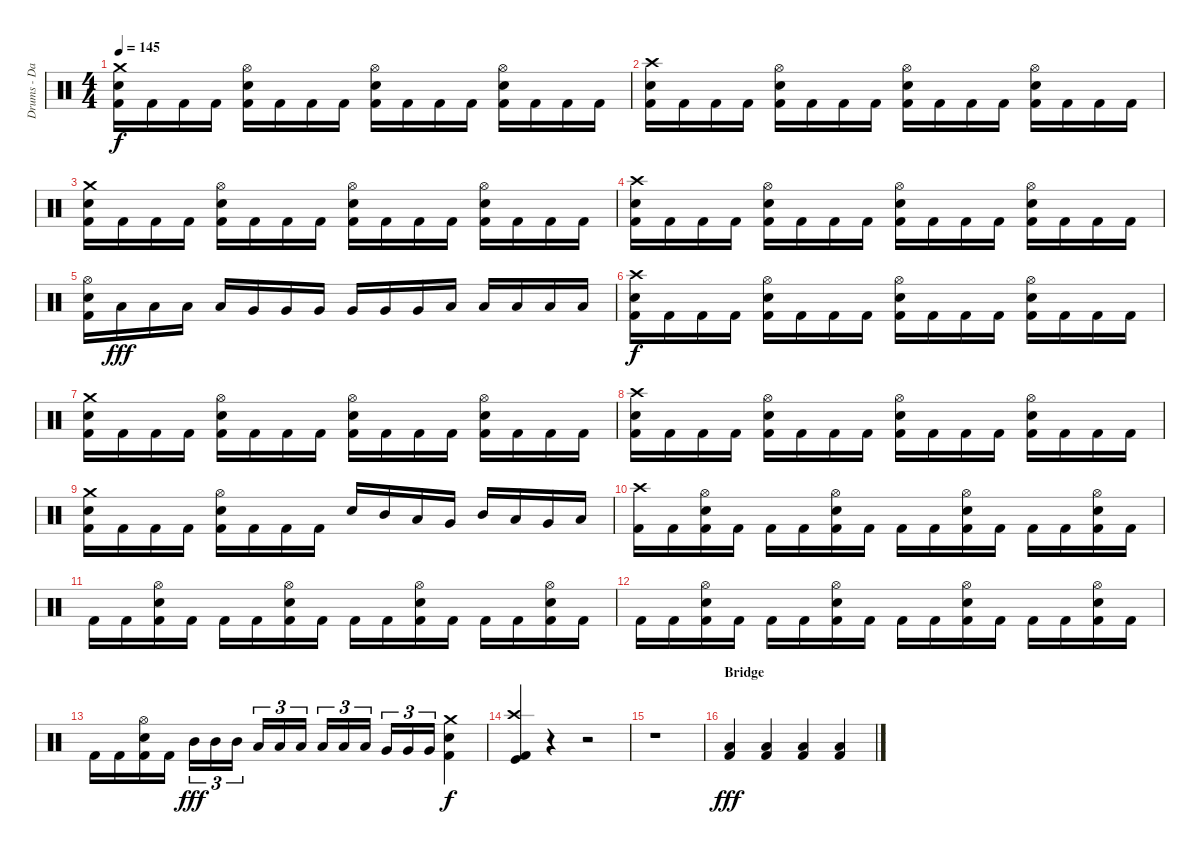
\track ("Drums - Daniel Zimmermann" "Drums - Da") {instrument percussion}
\staff {score}
\articulation defaults
\ts (4 4)
\tempo 145
\clef neutral
\ks c
("Kick (hit) 2" "Electric Snare (hit)" "Crash medium (hit)").16{dy f} "Kick (hit) 2".16 "Kick (hit) 2".16 "Kick (hit) 2".16 ("Kick (hit) 2" "Electric Snare (hit)" "Hi-Hat (open)").16 "Kick (hit) 2".16 "Kick (hit) 2".16 "Kick (hit) 2".16 ("Kick (hit) 2" "Electric Snare (hit)" "Hi-Hat (open)").16 "Kick (hit) 2".16 "Kick (hit) 2".16 "Kick (hit) 2".16 ("Kick (hit) 2" "Electric Snare (hit)" "Hi-Hat (open)").16 "Kick (hit) 2".16 "Kick (hit) 2".16 "Kick (hit) 2".16 |
("Kick (hit) 2" "Electric Snare (hit)" "Crash high (hit)").16 "Kick (hit) 2".16 "Kick (hit) 2".16 "Kick (hit) 2".16 ("Kick (hit) 2" "Electric Snare (hit)" "Hi-Hat (open)").16 "Kick (hit) 2".16 "Kick (hit) 2".16 "Kick (hit) 2".16 ("Kick (hit) 2" "Electric Snare (hit)" "Hi-Hat (open)").16 "Kick (hit) 2".16 "Kick (hit) 2".16 "Kick (hit) 2".16 ("Kick (hit) 2" "Electric Snare (hit)" "Hi-Hat (open)").16 "Kick (hit) 2".16 "Kick (hit) 2".16 "Kick (hit) 2".16 |
("Kick (hit) 2" "Electric Snare (hit)" "Crash medium (hit)").16 "Kick (hit) 2".16 "Kick (hit) 2".16 "Kick (hit) 2".16 ("Kick (hit) 2" "Electric Snare (hit)" "Hi-Hat (open)").16 "Kick (hit) 2".16 "Kick (hit) 2".16 "Kick (hit) 2".16 ("Kick (hit) 2" "Electric Snare (hit)" "Hi-Hat (open)").16 "Kick (hit) 2".16 "Kick (hit) 2".16 "Kick (hit) 2".16 ("Kick (hit) 2" "Electric Snare (hit)" "Hi-Hat (open)").16 "Kick (hit) 2".16 "Kick (hit) 2".16 "Kick (hit) 2".16 |
("Kick (hit) 2" "Electric Snare (hit)" "Crash high (hit)").16 "Kick (hit) 2".16 "Kick (hit) 2".16 "Kick (hit) 2".16 ("Kick (hit) 2" "Electric Snare (hit)" "Hi-Hat (open)").16 "Kick (hit) 2".16 "Kick (hit) 2".16 "Kick (hit) 2".16 ("Kick (hit) 2" "Electric Snare (hit)" "Hi-Hat (open)").16 "Kick (hit) 2".16 "Kick (hit) 2".16 "Kick (hit) 2".16 ("Kick (hit) 2" "Electric Snare (hit)" "Hi-Hat (open)").16 "Kick (hit) 2".16 "Kick (hit) 2".16 "Kick (hit) 2".16 |
("Kick (hit) 2" "Electric Snare (hit)" "Hi-Hat (open)").16 "Low Tom (hit)".16{dy fff} "Low Tom (hit)".16 "Low Tom (hit)".16 "Low Tom (hit)".16 "Very Low Tom (hit)".16 "Very Low Tom (hit)".16 "Very Low Tom (hit)".16 "Very Low Tom (hit)".16 "Very Low Tom (hit)".16 "Very Low Tom (hit)".16 "Low Floor Tom (hit)".16 "Low Floor Tom (hit)".16 "Low Floor Tom (hit)".16 "Low Floor Tom (hit)".16 "Low Floor Tom (hit)".16 |
("Kick (hit) 2" "Electric Snare (hit)" "Crash high (hit)").16{dy f} "Kick (hit) 2".16 "Kick (hit) 2".16 "Kick (hit) 2".16 ("Kick (hit) 2" "Electric Snare (hit)" "Hi-Hat (open)").16 "Kick (hit) 2".16 "Kick (hit) 2".16 "Kick (hit) 2".16 ("Kick (hit) 2" "Electric Snare (hit)" "Hi-Hat (open)").16 "Kick (hit) 2".16 "Kick (hit) 2".16 "Kick (hit) 2".16 ("Kick (hit) 2" "Electric Snare (hit)" "Hi-Hat (open)").16 "Kick (hit) 2".16 "Kick (hit) 2".16 "Kick (hit) 2".16 |
("Kick (hit) 2" "Electric Snare (hit)" "Crash medium (hit)").16 "Kick (hit) 2".16 "Kick (hit) 2".16 "Kick (hit) 2".16 ("Kick (hit) 2" "Electric Snare (hit)" "Hi-Hat (open)").16 "Kick (hit) 2".16 "Kick (hit) 2".16 "Kick (hit) 2".16 ("Kick (hit) 2" "Electric Snare (hit)" "Hi-Hat (open)").16 "Kick (hit) 2".16 "Kick (hit) 2".16 "Kick (hit) 2".16 ("Kick (hit) 2" "Electric Snare (hit)" "Hi-Hat (open)").16 "Kick (hit) 2".16 "Kick (hit) 2".16 "Kick (hit) 2".16 |
("Kick (hit) 2" "Electric Snare (hit)" "Crash high (hit)").16 "Kick (hit) 2".16 "Kick (hit) 2".16 "Kick (hit) 2".16 ("Kick (hit) 2" "Electric Snare (hit)" "Hi-Hat (open)").16 "Kick (hit) 2".16 "Kick (hit) 2".16 "Kick (hit) 2".16 ("Kick (hit) 2" "Electric Snare (hit)" "Hi-Hat (open)").16 "Kick (hit) 2".16 "Kick (hit) 2".16 "Kick (hit) 2".16 ("Kick (hit) 2" "Electric Snare (hit)" "Hi-Hat (open)").16 "Kick (hit) 2".16 "Kick (hit) 2".16 "Kick (hit) 2".16 |
("Kick (hit) 2" "Electric Snare (hit)" "Crash medium (hit)").16 "Kick (hit) 2".16 "Kick (hit) 2".16 "Kick (hit) 2".16 ("Kick (hit) 2" "Electric Snare (hit)" "Hi-Hat (open)").16 "Kick (hit) 2".16 "Kick (hit) 2".16 "Kick (hit) 2".16 "Electric Snare (hit)".16 "Mid Tom (hit)".16 "Low Tom (hit)".16 "Very Low Tom (hit)".16 "Mid Tom (hit)".16 "Low Tom (hit)".16 "Very Low Tom (hit)".16 "Low Floor Tom (hit)".16 |
("Kick (hit) 2" "Crash high (hit)").16 "Kick (hit) 2".16 ("Kick (hit) 2" "Electric Snare (hit)" "Hi-Hat (open)").16 "Kick (hit) 2".16 "Kick (hit) 2".16 "Kick (hit) 2".16 ("Kick (hit) 2" "Electric Snare (hit)" "Hi-Hat (open)").16 "Kick (hit) 2".16 "Kick (hit) 2".16 "Kick (hit) 2".16 ("Kick (hit) 2" "Electric Snare (hit)" "Hi-Hat (open)").16 "Kick (hit) 2".16 "Kick (hit) 2".16 "Kick (hit) 2".16 ("Kick (hit) 2" "Electric Snare (hit)" "Hi-Hat (open)").16 "Kick (hit) 2".16 |
"Kick (hit) 2".16 "Kick (hit) 2".16 ("Kick (hit) 2" "Electric Snare (hit)" "Hi-Hat (open)").16 "Kick (hit) 2".16 "Kick (hit) 2".16 "Kick (hit) 2".16 ("Kick (hit) 2" "Electric Snare (hit)" "Hi-Hat (open)").16 "Kick (hit) 2".16 "Kick (hit) 2".16 "Kick (hit) 2".16 ("Kick (hit) 2" "Electric Snare (hit)" "Hi-Hat (open)").16 "Kick (hit) 2".16 "Kick (hit) 2".16 "Kick (hit) 2".16 ("Kick (hit) 2" "Electric Snare (hit)" "Hi-Hat (open)").16 "Kick (hit) 2".16 |
"Kick (hit) 2".16 "Kick (hit) 2".16 ("Kick (hit) 2" "Electric Snare (hit)" "Hi-Hat (open)").16 "Kick (hit) 2".16 "Kick (hit) 2".16 "Kick (hit) 2".16 ("Kick (hit) 2" "Electric Snare (hit)" "Hi-Hat (open)").16 "Kick (hit) 2".16 "Kick (hit) 2".16 "Kick (hit) 2".16 ("Kick (hit) 2" "Electric Snare (hit)" "Hi-Hat (open)").16 "Kick (hit) 2".16 "Kick (hit) 2".16 "Kick (hit) 2".16 ("Kick (hit) 2" "Electric Snare (hit)" "Hi-Hat (open)").16 "Kick (hit) 2".16 |
"Kick (hit) 2".16 "Kick (hit) 2".16 ("Kick (hit) 2" "Electric Snare (hit)" "Hi-Hat (open)").16 "Kick (hit) 2".16 "Mid Tom (hit)".16{tu (3 2) dy fff} "Mid Tom (hit)".16{tu (3 2)} "Mid Tom (hit)".16{tu (3 2)} "Low Tom (hit)".16{tu (3 2)} "Low Tom (hit)".16{tu (3 2)} "Low Tom (hit)".16{tu (3 2)} "Low Tom (hit)".16{tu (3 2)} "Low Tom (hit)".16{tu (3 2)} "Low Tom (hit)".16{tu (3 2)} "Very Low Tom (hit)".16{tu (3 2)} "Very Low Tom (hit)".16{tu (3 2)} "Very Low Tom (hit)".16{tu (3 2)} ("Kick (hit) 2" "Electric Snare (hit)" "Crash medium (hit)").4{dy f} |
("Kick (hit) 2" "Kick (hit)" "Crash high (hit)").4 r.4 r.2 |
r.1 |
\section ("" "Bridge")
("Kick (hit) 2" "Low Floor Tom (hit)").4{dy fff} ("Kick (hit) 2" "Low Floor Tom (hit)").4 ("Kick (hit) 2" "Low Floor Tom (hit)").4 ("Kick (hit) 2" "Low Floor Tom (hit)").4
